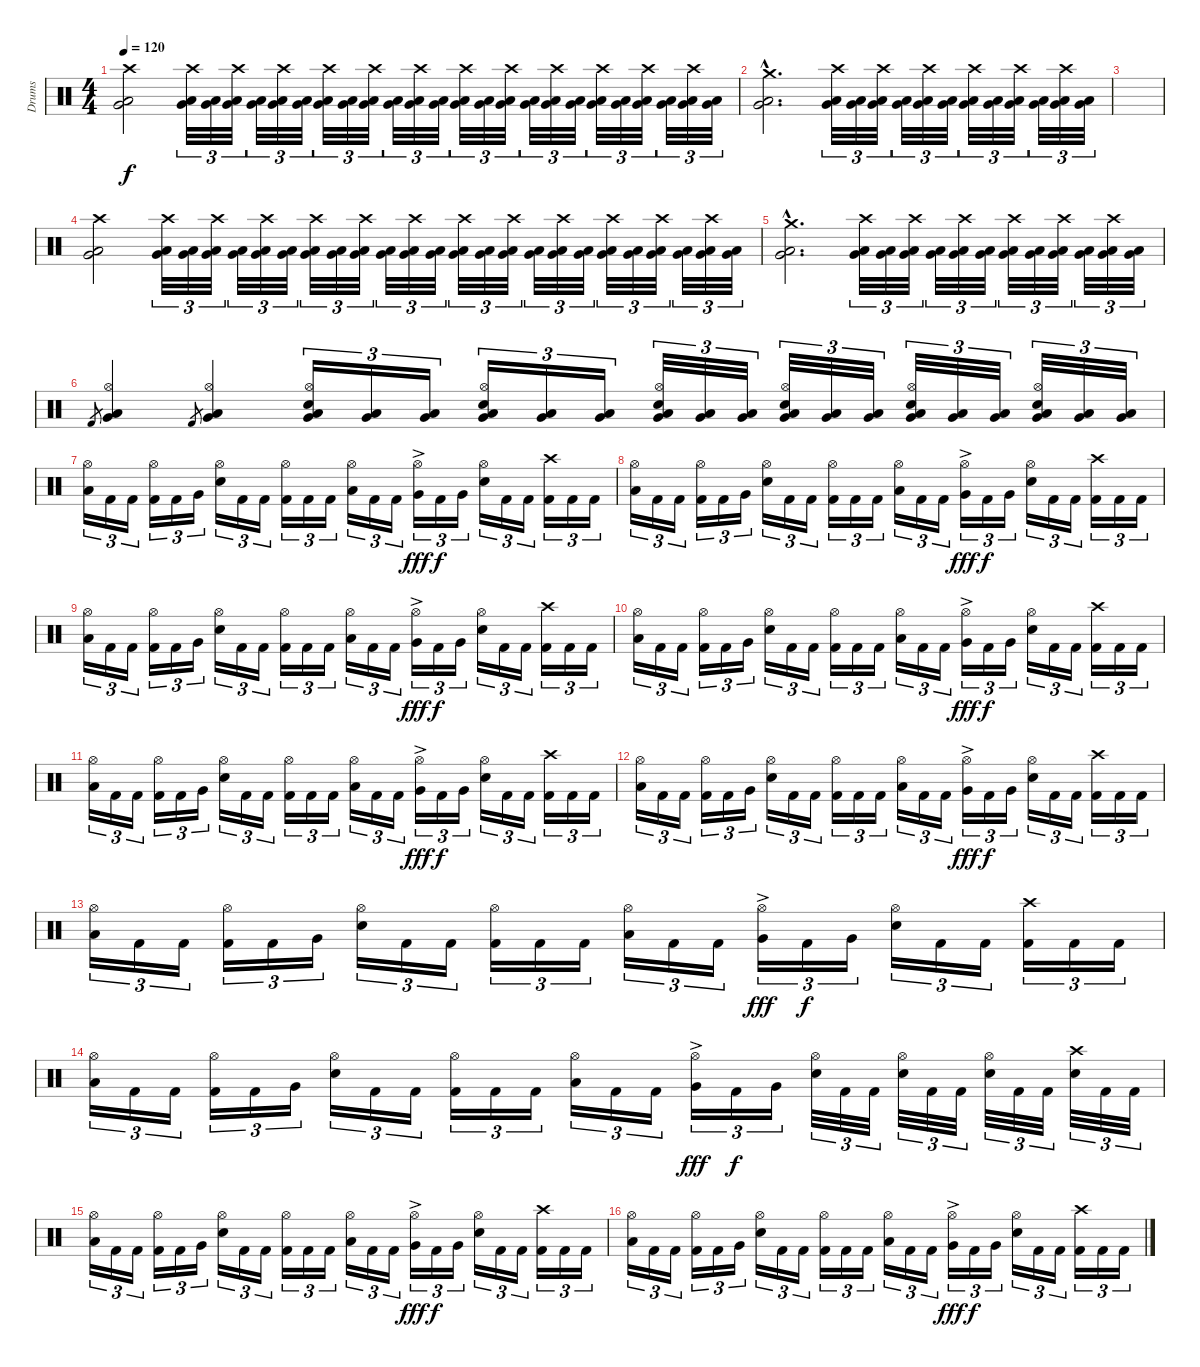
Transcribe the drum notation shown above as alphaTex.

\track ("Drums" "Drums") {instrument percussion}
\staff {score}
\articulation defaults
\ts (4 4)
\tempo 120
\clef neutral
\ks c
("Crash high (hit)" "Low Floor Tom (hit)" "Very Low Tom (hit)").2{dy f} ("Crash high (hit)" "Low Floor Tom (hit)" "Very Low Tom (hit)").32{tu (3 2)} ("Low Floor Tom (hit)" "Very Low Tom (hit)").32{tu (3 2)} ("Crash high (hit)" "Low Floor Tom (hit)" "Very Low Tom (hit)").32{tu (3 2)} ("Low Floor Tom (hit)" "Very Low Tom (hit)").32{tu (3 2)} ("Crash high (hit)" "Low Floor Tom (hit)" "Very Low Tom (hit)").32{tu (3 2)} ("Low Floor Tom (hit)" "Very Low Tom (hit)").32{tu (3 2)} ("Crash high (hit)" "Low Floor Tom (hit)" "Very Low Tom (hit)").32{tu (3 2)} ("Low Floor Tom (hit)" "Very Low Tom (hit)").32{tu (3 2)} ("Crash high (hit)" "Low Floor Tom (hit)" "Very Low Tom (hit)").32{tu (3 2)} ("Low Floor Tom (hit)" "Very Low Tom (hit)").32{tu (3 2)} ("Crash high (hit)" "Low Floor Tom (hit)" "Very Low Tom (hit)").32{tu (3 2)} ("Low Floor Tom (hit)" "Very Low Tom (hit)").32{tu (3 2)} ("Crash high (hit)" "Low Floor Tom (hit)" "Very Low Tom (hit)").32{tu (3 2)} ("Low Floor Tom (hit)" "Very Low Tom (hit)").32{tu (3 2)} ("Crash high (hit)" "Low Floor Tom (hit)" "Very Low Tom (hit)").32{tu (3 2)} ("Low Floor Tom (hit)" "Very Low Tom (hit)").32{tu (3 2)} ("Crash high (hit)" "Low Floor Tom (hit)" "Very Low Tom (hit)").32{tu (3 2)} ("Low Floor Tom (hit)" "Very Low Tom (hit)").32{tu (3 2)} ("Crash high (hit)" "Low Floor Tom (hit)" "Very Low Tom (hit)").32{tu (3 2)} ("Low Floor Tom (hit)" "Very Low Tom (hit)").32{tu (3 2)} ("Crash high (hit)" "Low Floor Tom (hit)" "Very Low Tom (hit)").32{tu (3 2)} ("Low Floor Tom (hit)" "Very Low Tom (hit)").32{tu (3 2)} ("Crash high (hit)" "Low Floor Tom (hit)" "Very Low Tom (hit)").32{tu (3 2)} ("Low Floor Tom (hit)" "Very Low Tom (hit)").32{tu (3 2)} |
("Crash medium (hit)"{hac} "Low Floor Tom (hit)"{hac} "Very Low Tom (hit)"{hac}).2{d} ("Crash high (hit)" "Low Floor Tom (hit)" "Very Low Tom (hit)").32{tu (3 2)} ("Low Floor Tom (hit)" "Very Low Tom (hit)").32{tu (3 2)} ("Crash high (hit)" "Low Floor Tom (hit)" "Very Low Tom (hit)").32{tu (3 2)} ("Low Floor Tom (hit)" "Very Low Tom (hit)").32{tu (3 2)} ("Crash high (hit)" "Low Floor Tom (hit)" "Very Low Tom (hit)").32{tu (3 2)} ("Low Floor Tom (hit)" "Very Low Tom (hit)").32{tu (3 2)} ("Crash high (hit)" "Low Floor Tom (hit)" "Very Low Tom (hit)").32{tu (3 2)} ("Low Floor Tom (hit)" "Very Low Tom (hit)").32{tu (3 2)} ("Crash high (hit)" "Low Floor Tom (hit)" "Very Low Tom (hit)").32{tu (3 2)} ("Low Floor Tom (hit)" "Very Low Tom (hit)").32{tu (3 2)} ("Crash high (hit)" "Low Floor Tom (hit)" "Very Low Tom (hit)").32{tu (3 2)} ("Low Floor Tom (hit)" "Very Low Tom (hit)").32{tu (3 2)} |
|
("Crash high (hit)" "Low Floor Tom (hit)" "Very Low Tom (hit)").2 ("Crash high (hit)" "Low Floor Tom (hit)" "Very Low Tom (hit)").32{tu (3 2)} ("Low Floor Tom (hit)" "Very Low Tom (hit)").32{tu (3 2)} ("Crash high (hit)" "Low Floor Tom (hit)" "Very Low Tom (hit)").32{tu (3 2)} ("Low Floor Tom (hit)" "Very Low Tom (hit)").32{tu (3 2)} ("Crash high (hit)" "Low Floor Tom (hit)" "Very Low Tom (hit)").32{tu (3 2)} ("Low Floor Tom (hit)" "Very Low Tom (hit)").32{tu (3 2)} ("Crash high (hit)" "Low Floor Tom (hit)" "Very Low Tom (hit)").32{tu (3 2)} ("Low Floor Tom (hit)" "Very Low Tom (hit)").32{tu (3 2)} ("Crash high (hit)" "Low Floor Tom (hit)" "Very Low Tom (hit)").32{tu (3 2)} ("Low Floor Tom (hit)" "Very Low Tom (hit)").32{tu (3 2)} ("Crash high (hit)" "Low Floor Tom (hit)" "Very Low Tom (hit)").32{tu (3 2)} ("Low Floor Tom (hit)" "Very Low Tom (hit)").32{tu (3 2)} ("Crash high (hit)" "Low Floor Tom (hit)" "Very Low Tom (hit)").32{tu (3 2)} ("Low Floor Tom (hit)" "Very Low Tom (hit)").32{tu (3 2)} ("Crash high (hit)" "Low Floor Tom (hit)" "Very Low Tom (hit)").32{tu (3 2)} ("Low Floor Tom (hit)" "Very Low Tom (hit)").32{tu (3 2)} ("Crash high (hit)" "Low Floor Tom (hit)" "Very Low Tom (hit)").32{tu (3 2)} ("Low Floor Tom (hit)" "Very Low Tom (hit)").32{tu (3 2)} ("Crash high (hit)" "Low Floor Tom (hit)" "Very Low Tom (hit)").32{tu (3 2)} ("Low Floor Tom (hit)" "Very Low Tom (hit)").32{tu (3 2)} ("Crash high (hit)" "Low Floor Tom (hit)" "Very Low Tom (hit)").32{tu (3 2)} ("Low Floor Tom (hit)" "Very Low Tom (hit)").32{tu (3 2)} ("Crash high (hit)" "Low Floor Tom (hit)" "Very Low Tom (hit)").32{tu (3 2)} ("Low Floor Tom (hit)" "Very Low Tom (hit)").32{tu (3 2)} |
("Crash medium (hit)"{hac} "Low Floor Tom (hit)"{hac} "Very Low Tom (hit)"{hac}).2{d} ("Crash high (hit)" "Low Floor Tom (hit)" "Very Low Tom (hit)").32{tu (3 2)} ("Low Floor Tom (hit)" "Very Low Tom (hit)").32{tu (3 2)} ("Crash high (hit)" "Low Floor Tom (hit)" "Very Low Tom (hit)").32{tu (3 2)} ("Low Floor Tom (hit)" "Very Low Tom (hit)").32{tu (3 2)} ("Crash high (hit)" "Low Floor Tom (hit)" "Very Low Tom (hit)").32{tu (3 2)} ("Low Floor Tom (hit)" "Very Low Tom (hit)").32{tu (3 2)} ("Crash high (hit)" "Low Floor Tom (hit)" "Very Low Tom (hit)").32{tu (3 2)} ("Low Floor Tom (hit)" "Very Low Tom (hit)").32{tu (3 2)} ("Crash high (hit)" "Low Floor Tom (hit)" "Very Low Tom (hit)").32{tu (3 2)} ("Low Floor Tom (hit)" "Very Low Tom (hit)").32{tu (3 2)} ("Crash high (hit)" "Low Floor Tom (hit)" "Very Low Tom (hit)").32{tu (3 2)} ("Low Floor Tom (hit)" "Very Low Tom (hit)").32{tu (3 2)} |
"Kick (hit) 2".8{gr} ("Hi-Hat (open)" "Low Tom (hit)" "Very Low Tom (hit)").4 "Kick (hit) 2".8{gr} ("Hi-Hat (open)" "Low Tom (hit)" "Very Low Tom (hit)").4 ("Hi-Hat (open)" "Electric Snare (hit)" "Low Tom (hit)" "Very Low Tom (hit)").16{tu (3 2)} ("Low Tom (hit)" "Very Low Tom (hit)").16{tu (3 2)} ("Low Tom (hit)" "Very Low Tom (hit)").16{tu (3 2)} ("Hi-Hat (open)" "Electric Snare (hit)" "Low Tom (hit)" "Very Low Tom (hit)").16{tu (3 2)} ("Low Tom (hit)" "Very Low Tom (hit)").16{tu (3 2)} ("Low Tom (hit)" "Very Low Tom (hit)").16{tu (3 2)} ("Hi-Hat (open)" "Electric Snare (hit)" "Low Tom (hit)" "Very Low Tom (hit)").32{tu (3 2)} ("Low Tom (hit)" "Very Low Tom (hit)").32{tu (3 2)} ("Low Tom (hit)" "Very Low Tom (hit)").32{tu (3 2)} ("Hi-Hat (open)" "Electric Snare (hit)" "Low Tom (hit)" "Very Low Tom (hit)").32{tu (3 2)} ("Low Tom (hit)" "Very Low Tom (hit)").32{tu (3 2)} ("Low Tom (hit)" "Very Low Tom (hit)").32{tu (3 2)} ("Hi-Hat (open)" "Electric Snare (hit)" "Low Tom (hit)" "Very Low Tom (hit)").32{tu (3 2)} ("Low Tom (hit)" "Very Low Tom (hit)").32{tu (3 2)} ("Low Tom (hit)" "Very Low Tom (hit)").32{tu (3 2)} ("Hi-Hat (open)" "Electric Snare (hit)" "Low Tom (hit)" "Very Low Tom (hit)").32{tu (3 2)} ("Low Tom (hit)" "Very Low Tom (hit)").32{tu (3 2)} ("Low Tom (hit)" "Very Low Tom (hit)").32{tu (3 2)} |
("Hi-Hat (open)" "Low Tom (hit)").16{tu (3 2)} "Kick (hit) 2".16{tu (3 2)} "Kick (hit) 2".16{tu (3 2)} ("Hi-Hat (open)" "Kick (hit) 2").16{tu (3 2)} "Kick (hit) 2".16{tu (3 2)} "Very Low Tom (hit)".16{tu (3 2)} ("Hi-Hat (open)" "Electric Snare (hit)").16{tu (3 2)} "Kick (hit) 2".16{tu (3 2)} "Kick (hit) 2".16{tu (3 2)} ("Hi-Hat (open)" "Kick (hit) 2").16{tu (3 2)} "Kick (hit) 2".16{tu (3 2)} "Kick (hit) 2".16{tu (3 2)} ("Hi-Hat (open)" "Low Tom (hit)").16{tu (3 2)} "Kick (hit) 2".16{tu (3 2)} "Kick (hit) 2".16{tu (3 2)} ("Hi-Hat (open)" "Very Low Tom (hit)"{ac}).16{tu (3 2) dy fff} "Kick (hit) 2".16{tu (3 2) dy f} "Very Low Tom (hit)".16{tu (3 2)} ("Hi-Hat (open)" "Electric Snare (hit)").16{tu (3 2)} "Kick (hit) 2".16{tu (3 2)} "Kick (hit) 2".16{tu (3 2)} ("Crash high (hit)" "Kick (hit) 2").16{tu (3 2)} "Kick (hit) 2".16{tu (3 2)} "Kick (hit) 2".16{tu (3 2)} |
("Hi-Hat (open)" "Low Tom (hit)").16{tu (3 2)} "Kick (hit) 2".16{tu (3 2)} "Kick (hit) 2".16{tu (3 2)} ("Hi-Hat (open)" "Kick (hit) 2").16{tu (3 2)} "Kick (hit) 2".16{tu (3 2)} "Very Low Tom (hit)".16{tu (3 2)} ("Hi-Hat (open)" "Electric Snare (hit)").16{tu (3 2)} "Kick (hit) 2".16{tu (3 2)} "Kick (hit) 2".16{tu (3 2)} ("Hi-Hat (open)" "Kick (hit) 2").16{tu (3 2)} "Kick (hit) 2".16{tu (3 2)} "Kick (hit) 2".16{tu (3 2)} ("Hi-Hat (open)" "Low Tom (hit)").16{tu (3 2)} "Kick (hit) 2".16{tu (3 2)} "Kick (hit) 2".16{tu (3 2)} ("Hi-Hat (open)" "Very Low Tom (hit)"{ac}).16{tu (3 2) dy fff} "Kick (hit) 2".16{tu (3 2) dy f} "Very Low Tom (hit)".16{tu (3 2)} ("Hi-Hat (open)" "Electric Snare (hit)").16{tu (3 2)} "Kick (hit) 2".16{tu (3 2)} "Kick (hit) 2".16{tu (3 2)} ("Crash high (hit)" "Kick (hit) 2").16{tu (3 2)} "Kick (hit) 2".16{tu (3 2)} "Kick (hit) 2".16{tu (3 2)} |
("Hi-Hat (open)" "Low Tom (hit)").16{tu (3 2)} "Kick (hit) 2".16{tu (3 2)} "Kick (hit) 2".16{tu (3 2)} ("Hi-Hat (open)" "Kick (hit) 2").16{tu (3 2)} "Kick (hit) 2".16{tu (3 2)} "Very Low Tom (hit)".16{tu (3 2)} ("Hi-Hat (open)" "Electric Snare (hit)").16{tu (3 2)} "Kick (hit) 2".16{tu (3 2)} "Kick (hit) 2".16{tu (3 2)} ("Hi-Hat (open)" "Kick (hit) 2").16{tu (3 2)} "Kick (hit) 2".16{tu (3 2)} "Kick (hit) 2".16{tu (3 2)} ("Hi-Hat (open)" "Low Tom (hit)").16{tu (3 2)} "Kick (hit) 2".16{tu (3 2)} "Kick (hit) 2".16{tu (3 2)} ("Hi-Hat (open)" "Very Low Tom (hit)"{ac}).16{tu (3 2) dy fff} "Kick (hit) 2".16{tu (3 2) dy f} "Very Low Tom (hit)".16{tu (3 2)} ("Hi-Hat (open)" "Electric Snare (hit)").16{tu (3 2)} "Kick (hit) 2".16{tu (3 2)} "Kick (hit) 2".16{tu (3 2)} ("Crash high (hit)" "Kick (hit) 2").16{tu (3 2)} "Kick (hit) 2".16{tu (3 2)} "Kick (hit) 2".16{tu (3 2)} |
("Hi-Hat (open)" "Low Tom (hit)").16{tu (3 2)} "Kick (hit) 2".16{tu (3 2)} "Kick (hit) 2".16{tu (3 2)} ("Hi-Hat (open)" "Kick (hit) 2").16{tu (3 2)} "Kick (hit) 2".16{tu (3 2)} "Very Low Tom (hit)".16{tu (3 2)} ("Hi-Hat (open)" "Electric Snare (hit)").16{tu (3 2)} "Kick (hit) 2".16{tu (3 2)} "Kick (hit) 2".16{tu (3 2)} ("Hi-Hat (open)" "Kick (hit) 2").16{tu (3 2)} "Kick (hit) 2".16{tu (3 2)} "Kick (hit) 2".16{tu (3 2)} ("Hi-Hat (open)" "Low Tom (hit)").16{tu (3 2)} "Kick (hit) 2".16{tu (3 2)} "Kick (hit) 2".16{tu (3 2)} ("Hi-Hat (open)" "Very Low Tom (hit)"{ac}).16{tu (3 2) dy fff} "Kick (hit) 2".16{tu (3 2) dy f} "Very Low Tom (hit)".16{tu (3 2)} ("Hi-Hat (open)" "Electric Snare (hit)").16{tu (3 2)} "Kick (hit) 2".16{tu (3 2)} "Kick (hit) 2".16{tu (3 2)} ("Crash high (hit)" "Kick (hit) 2").16{tu (3 2)} "Kick (hit) 2".16{tu (3 2)} "Kick (hit) 2".16{tu (3 2)} |
("Hi-Hat (open)" "Low Tom (hit)").16{tu (3 2)} "Kick (hit) 2".16{tu (3 2)} "Kick (hit) 2".16{tu (3 2)} ("Hi-Hat (open)" "Kick (hit) 2").16{tu (3 2)} "Kick (hit) 2".16{tu (3 2)} "Very Low Tom (hit)".16{tu (3 2)} ("Hi-Hat (open)" "Electric Snare (hit)").16{tu (3 2)} "Kick (hit) 2".16{tu (3 2)} "Kick (hit) 2".16{tu (3 2)} ("Hi-Hat (open)" "Kick (hit) 2").16{tu (3 2)} "Kick (hit) 2".16{tu (3 2)} "Kick (hit) 2".16{tu (3 2)} ("Hi-Hat (open)" "Low Tom (hit)").16{tu (3 2)} "Kick (hit) 2".16{tu (3 2)} "Kick (hit) 2".16{tu (3 2)} ("Hi-Hat (open)" "Very Low Tom (hit)"{ac}).16{tu (3 2) dy fff} "Kick (hit) 2".16{tu (3 2) dy f} "Very Low Tom (hit)".16{tu (3 2)} ("Hi-Hat (open)" "Electric Snare (hit)").16{tu (3 2)} "Kick (hit) 2".16{tu (3 2)} "Kick (hit) 2".16{tu (3 2)} ("Crash high (hit)" "Kick (hit) 2").16{tu (3 2)} "Kick (hit) 2".16{tu (3 2)} "Kick (hit) 2".16{tu (3 2)} |
("Hi-Hat (open)" "Low Tom (hit)").16{tu (3 2)} "Kick (hit) 2".16{tu (3 2)} "Kick (hit) 2".16{tu (3 2)} ("Hi-Hat (open)" "Kick (hit) 2").16{tu (3 2)} "Kick (hit) 2".16{tu (3 2)} "Very Low Tom (hit)".16{tu (3 2)} ("Hi-Hat (open)" "Electric Snare (hit)").16{tu (3 2)} "Kick (hit) 2".16{tu (3 2)} "Kick (hit) 2".16{tu (3 2)} ("Hi-Hat (open)" "Kick (hit) 2").16{tu (3 2)} "Kick (hit) 2".16{tu (3 2)} "Kick (hit) 2".16{tu (3 2)} ("Hi-Hat (open)" "Low Tom (hit)").16{tu (3 2)} "Kick (hit) 2".16{tu (3 2)} "Kick (hit) 2".16{tu (3 2)} ("Hi-Hat (open)" "Very Low Tom (hit)"{ac}).16{tu (3 2) dy fff} "Kick (hit) 2".16{tu (3 2) dy f} "Very Low Tom (hit)".16{tu (3 2)} ("Hi-Hat (open)" "Electric Snare (hit)").16{tu (3 2)} "Kick (hit) 2".16{tu (3 2)} "Kick (hit) 2".16{tu (3 2)} ("Crash high (hit)" "Kick (hit) 2").16{tu (3 2)} "Kick (hit) 2".16{tu (3 2)} "Kick (hit) 2".16{tu (3 2)} |
("Hi-Hat (open)" "Low Tom (hit)").16{tu (3 2)} "Kick (hit) 2".16{tu (3 2)} "Kick (hit) 2".16{tu (3 2)} ("Hi-Hat (open)" "Kick (hit) 2").16{tu (3 2)} "Kick (hit) 2".16{tu (3 2)} "Very Low Tom (hit)".16{tu (3 2)} ("Hi-Hat (open)" "Electric Snare (hit)").16{tu (3 2)} "Kick (hit) 2".16{tu (3 2)} "Kick (hit) 2".16{tu (3 2)} ("Hi-Hat (open)" "Kick (hit) 2").16{tu (3 2)} "Kick (hit) 2".16{tu (3 2)} "Kick (hit) 2".16{tu (3 2)} ("Hi-Hat (open)" "Low Tom (hit)").16{tu (3 2)} "Kick (hit) 2".16{tu (3 2)} "Kick (hit) 2".16{tu (3 2)} ("Hi-Hat (open)" "Very Low Tom (hit)"{ac}).16{tu (3 2) dy fff} "Kick (hit) 2".16{tu (3 2) dy f} "Very Low Tom (hit)".16{tu (3 2)} ("Hi-Hat (open)" "Electric Snare (hit)").16{tu (3 2)} "Kick (hit) 2".16{tu (3 2)} "Kick (hit) 2".16{tu (3 2)} ("Crash high (hit)" "Kick (hit) 2").16{tu (3 2)} "Kick (hit) 2".16{tu (3 2)} "Kick (hit) 2".16{tu (3 2)} |
("Hi-Hat (open)" "Low Tom (hit)").16{tu (3 2)} "Kick (hit) 2".16{tu (3 2)} "Kick (hit) 2".16{tu (3 2)} ("Hi-Hat (open)" "Kick (hit) 2").16{tu (3 2)} "Kick (hit) 2".16{tu (3 2)} "Very Low Tom (hit)".16{tu (3 2)} ("Hi-Hat (open)" "Electric Snare (hit)").16{tu (3 2)} "Kick (hit) 2".16{tu (3 2)} "Kick (hit) 2".16{tu (3 2)} ("Hi-Hat (open)" "Kick (hit) 2").16{tu (3 2)} "Kick (hit) 2".16{tu (3 2)} "Kick (hit) 2".16{tu (3 2)} ("Hi-Hat (open)" "Low Tom (hit)").16{tu (3 2)} "Kick (hit) 2".16{tu (3 2)} "Kick (hit) 2".16{tu (3 2)} ("Hi-Hat (open)" "Very Low Tom (hit)"{ac}).16{tu (3 2) dy fff} "Kick (hit) 2".16{tu (3 2) dy f} "Very Low Tom (hit)".16{tu (3 2)} ("Hi-Hat (open)" "Electric Snare (hit)").32{tu (3 2)} "Kick (hit) 2".32{tu (3 2)} "Kick (hit) 2".32{tu (3 2)} ("Hi-Hat (open)" "Electric Snare (hit)").32{tu (3 2)} "Kick (hit) 2".32{tu (3 2)} "Kick (hit) 2".32{tu (3 2)} ("Hi-Hat (open)" "Electric Snare (hit)").32{tu (3 2)} "Kick (hit) 2".32{tu (3 2)} "Kick (hit) 2".32{tu (3 2)} ("Crash high (hit)" "Electric Snare (hit)").32{tu (3 2)} "Kick (hit) 2".32{tu (3 2)} "Kick (hit) 2".32{tu (3 2)} |
("Hi-Hat (open)" "Low Tom (hit)").16{tu (3 2)} "Kick (hit) 2".16{tu (3 2)} "Kick (hit) 2".16{tu (3 2)} ("Hi-Hat (open)" "Kick (hit) 2").16{tu (3 2)} "Kick (hit) 2".16{tu (3 2)} "Very Low Tom (hit)".16{tu (3 2)} ("Hi-Hat (open)" "Electric Snare (hit)").16{tu (3 2)} "Kick (hit) 2".16{tu (3 2)} "Kick (hit) 2".16{tu (3 2)} ("Hi-Hat (open)" "Kick (hit) 2").16{tu (3 2)} "Kick (hit) 2".16{tu (3 2)} "Kick (hit) 2".16{tu (3 2)} ("Hi-Hat (open)" "Low Tom (hit)").16{tu (3 2)} "Kick (hit) 2".16{tu (3 2)} "Kick (hit) 2".16{tu (3 2)} ("Hi-Hat (open)" "Very Low Tom (hit)"{ac}).16{tu (3 2) dy fff} "Kick (hit) 2".16{tu (3 2) dy f} "Very Low Tom (hit)".16{tu (3 2)} ("Hi-Hat (open)" "Electric Snare (hit)").16{tu (3 2)} "Kick (hit) 2".16{tu (3 2)} "Kick (hit) 2".16{tu (3 2)} ("Crash high (hit)" "Kick (hit) 2").16{tu (3 2)} "Kick (hit) 2".16{tu (3 2)} "Kick (hit) 2".16{tu (3 2)} |
("Hi-Hat (open)" "Low Tom (hit)").16{tu (3 2)} "Kick (hit) 2".16{tu (3 2)} "Kick (hit) 2".16{tu (3 2)} ("Hi-Hat (open)" "Kick (hit) 2").16{tu (3 2)} "Kick (hit) 2".16{tu (3 2)} "Very Low Tom (hit)".16{tu (3 2)} ("Hi-Hat (open)" "Electric Snare (hit)").16{tu (3 2)} "Kick (hit) 2".16{tu (3 2)} "Kick (hit) 2".16{tu (3 2)} ("Hi-Hat (open)" "Kick (hit) 2").16{tu (3 2)} "Kick (hit) 2".16{tu (3 2)} "Kick (hit) 2".16{tu (3 2)} ("Hi-Hat (open)" "Low Tom (hit)").16{tu (3 2)} "Kick (hit) 2".16{tu (3 2)} "Kick (hit) 2".16{tu (3 2)} ("Hi-Hat (open)" "Very Low Tom (hit)"{ac}).16{tu (3 2) dy fff} "Kick (hit) 2".16{tu (3 2) dy f} "Very Low Tom (hit)".16{tu (3 2)} ("Hi-Hat (open)" "Electric Snare (hit)").16{tu (3 2)} "Kick (hit) 2".16{tu (3 2)} "Kick (hit) 2".16{tu (3 2)} ("Crash high (hit)" "Kick (hit) 2").16{tu (3 2)} "Kick (hit) 2".16{tu (3 2)} "Kick (hit) 2".16{tu (3 2)}
